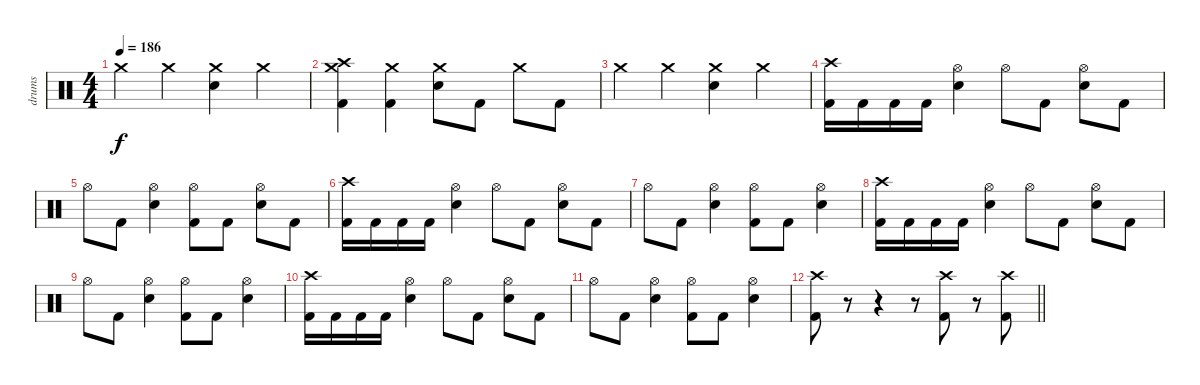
\track ("drums" "drums") {instrument percussion}
\staff {score}
\articulation defaults
\ts (4 4)
\tempo 186
\clef neutral
\ks c "Crash medium (hit)".4{dy f} "Crash medium (hit)".4
("Crash medium (hit)" "Electric Snare (hit)").4 "Crash medium (hit)".4 |
("Crash high (hit)" "Crash medium (hit)" "Kick (hit) 2").4 ("Crash medium (hit)" "Kick (hit) 2").4 ("Crash medium (hit)" "Electric Snare (hit)").8 "Kick (hit) 2".8 "Crash medium (hit)".8 "Kick (hit) 2".8 |
"Crash medium (hit)".4 "Crash medium (hit)".4 ("Crash medium (hit)" "Electric Snare (hit)").4 "Crash medium (hit)".4 |
("Crash high (hit)" "Kick (hit) 2").16 "Kick (hit) 2".16 "Kick (hit) 2".16 "Kick (hit) 2".16 ("Hi-Hat (open)" "Electric Snare (hit)").4 "Hi-Hat (open)".8 "Kick (hit) 2".8 ("Hi-Hat (open)" "Electric Snare (hit)").8 "Kick (hit) 2".8 |
"Hi-Hat (open)".8 "Kick (hit) 2".8 ("Hi-Hat (open)" "Electric Snare (hit)").4 ("Hi-Hat (open)" "Kick (hit) 2").8 "Kick (hit) 2".8 ("Hi-Hat (open)" "Electric Snare (hit)").8 "Kick (hit) 2".8 |
("Crash high (hit)" "Kick (hit) 2").16 "Kick (hit) 2".16 "Kick (hit) 2".16 "Kick (hit) 2".16 ("Hi-Hat (open)" "Electric Snare (hit)").4 "Hi-Hat (open)".8 "Kick (hit) 2".8 ("Hi-Hat (open)" "Electric Snare (hit)").8 "Kick (hit) 2".8 |
"Hi-Hat (open)".8 "Kick (hit) 2".8 ("Hi-Hat (open)" "Electric Snare (hit)").4 ("Hi-Hat (open)" "Kick (hit) 2").8 "Kick (hit) 2".8 ("Hi-Hat (open)" "Electric Snare (hit)").4 |
("Crash high (hit)" "Kick (hit) 2").16 "Kick (hit) 2".16 "Kick (hit) 2".16 "Kick (hit) 2".16 ("Hi-Hat (open)" "Electric Snare (hit)").4 "Hi-Hat (open)".8 "Kick (hit) 2".8 ("Hi-Hat (open)" "Electric Snare (hit)").8 "Kick (hit) 2".8 |
"Hi-Hat (open)".8 "Kick (hit) 2".8 ("Hi-Hat (open)" "Electric Snare (hit)").4 ("Hi-Hat (open)" "Kick (hit) 2").8 "Kick (hit) 2".8 ("Hi-Hat (open)" "Electric Snare (hit)").4 |
("Crash high (hit)" "Kick (hit) 2").16 "Kick (hit) 2".16 "Kick (hit) 2".16 "Kick (hit) 2".16 ("Hi-Hat (open)" "Electric Snare (hit)").4 "Hi-Hat (open)".8 "Kick (hit) 2".8 ("Hi-Hat (open)" "Electric Snare (hit)").8 "Kick (hit) 2".8 |
"Hi-Hat (open)".8 "Kick (hit) 2".8 ("Hi-Hat (open)" "Electric Snare (hit)").4 ("Hi-Hat (open)" "Kick (hit) 2").8 "Kick (hit) 2".8 ("Hi-Hat (open)" "Electric Snare (hit)").4 |
\barLineRight lightlight
("Crash high (hit)" "Kick (hit) 2").8 r.8 r.4 r.8 ("Crash high (hit)" "Kick (hit) 2").8 r.8 ("Crash high (hit)" "Kick (hit) 2").8
